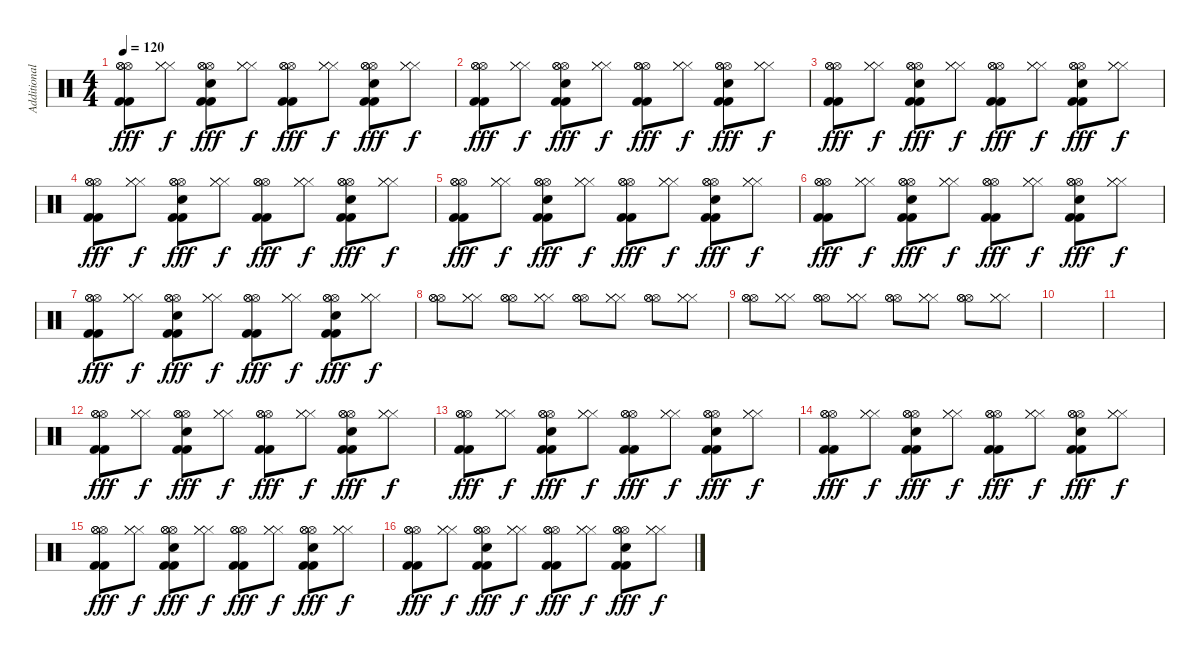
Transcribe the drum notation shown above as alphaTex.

\track ("Additional Rythm" "Additional") {instrument percussion}
\staff {score}
\articulation defaults
\ts (4 4)
\tempo 120
\clef neutral
\ks c
("Hi-Hat (open)" "Hi-Hat (open)" "Hi-Hat (open)" "Kick (hit) 2" "Kick (hit) 2").8{dy fff} ("Hi-Hat (closed)" "Hi-Hat (closed)" "Hi-Hat (closed)").8{dy f} ("Hi-Hat (open)" "Hi-Hat (open)" "Hi-Hat (open)" "Kick (hit) 2" "Kick (hit) 2" "Snare (hit) 2").8{dy fff} ("Hi-Hat (closed)" "Hi-Hat (closed)" "Hi-Hat (closed)").8{dy f} ("Hi-Hat (open)" "Hi-Hat (open)" "Hi-Hat (open)" "Kick (hit) 2" "Kick (hit) 2").8{dy fff} ("Hi-Hat (closed)" "Hi-Hat (closed)" "Hi-Hat (closed)").8{dy f} ("Hi-Hat (open)" "Hi-Hat (open)" "Hi-Hat (open)" "Kick (hit) 2" "Kick (hit) 2" "Snare (hit) 2").8{dy fff} ("Hi-Hat (closed)" "Hi-Hat (closed)" "Hi-Hat (closed)").8{dy f} |
("Hi-Hat (open)" "Hi-Hat (open)" "Hi-Hat (open)" "Kick (hit) 2" "Kick (hit) 2").8{dy fff} ("Hi-Hat (closed)" "Hi-Hat (closed)" "Hi-Hat (closed)").8{dy f} ("Hi-Hat (open)" "Hi-Hat (open)" "Hi-Hat (open)" "Kick (hit) 2" "Kick (hit) 2" "Snare (hit) 2").8{dy fff} ("Hi-Hat (closed)" "Hi-Hat (closed)" "Hi-Hat (closed)").8{dy f} ("Hi-Hat (open)" "Hi-Hat (open)" "Hi-Hat (open)" "Kick (hit) 2" "Kick (hit) 2").8{dy fff} ("Hi-Hat (closed)" "Hi-Hat (closed)" "Hi-Hat (closed)").8{dy f} ("Hi-Hat (open)" "Hi-Hat (open)" "Hi-Hat (open)" "Kick (hit) 2" "Kick (hit) 2" "Snare (hit) 2").8{dy fff} ("Hi-Hat (closed)" "Hi-Hat (closed)" "Hi-Hat (closed)").8{dy f} |
("Hi-Hat (open)" "Hi-Hat (open)" "Hi-Hat (open)" "Kick (hit) 2" "Kick (hit) 2").8{dy fff} ("Hi-Hat (closed)" "Hi-Hat (closed)" "Hi-Hat (closed)").8{dy f} ("Hi-Hat (open)" "Hi-Hat (open)" "Hi-Hat (open)" "Kick (hit) 2" "Kick (hit) 2" "Snare (hit) 2").8{dy fff} ("Hi-Hat (closed)" "Hi-Hat (closed)" "Hi-Hat (closed)").8{dy f} ("Hi-Hat (open)" "Hi-Hat (open)" "Hi-Hat (open)" "Kick (hit) 2" "Kick (hit) 2").8{dy fff} ("Hi-Hat (closed)" "Hi-Hat (closed)" "Hi-Hat (closed)").8{dy f} ("Hi-Hat (open)" "Hi-Hat (open)" "Hi-Hat (open)" "Kick (hit) 2" "Kick (hit) 2" "Snare (hit) 2").8{dy fff} ("Hi-Hat (closed)" "Hi-Hat (closed)" "Hi-Hat (closed)").8{dy f} |
("Hi-Hat (open)" "Hi-Hat (open)" "Hi-Hat (open)" "Kick (hit) 2" "Kick (hit) 2").8{dy fff} ("Hi-Hat (closed)" "Hi-Hat (closed)" "Hi-Hat (closed)").8{dy f} ("Hi-Hat (open)" "Hi-Hat (open)" "Hi-Hat (open)" "Kick (hit) 2" "Kick (hit) 2" "Snare (hit) 2").8{dy fff} ("Hi-Hat (closed)" "Hi-Hat (closed)" "Hi-Hat (closed)").8{dy f} ("Hi-Hat (open)" "Hi-Hat (open)" "Hi-Hat (open)" "Kick (hit) 2" "Kick (hit) 2").8{dy fff} ("Hi-Hat (closed)" "Hi-Hat (closed)" "Hi-Hat (closed)").8{dy f} ("Hi-Hat (open)" "Hi-Hat (open)" "Hi-Hat (open)" "Kick (hit) 2" "Kick (hit) 2" "Snare (hit) 2").8{dy fff} ("Hi-Hat (closed)" "Hi-Hat (closed)" "Hi-Hat (closed)").8{dy f} |
("Hi-Hat (open)" "Hi-Hat (open)" "Hi-Hat (open)" "Kick (hit) 2" "Kick (hit) 2").8{dy fff} ("Hi-Hat (closed)" "Hi-Hat (closed)" "Hi-Hat (closed)").8{dy f} ("Hi-Hat (open)" "Hi-Hat (open)" "Hi-Hat (open)" "Kick (hit) 2" "Kick (hit) 2" "Snare (hit) 2").8{dy fff} ("Hi-Hat (closed)" "Hi-Hat (closed)" "Hi-Hat (closed)").8{dy f} ("Hi-Hat (open)" "Hi-Hat (open)" "Hi-Hat (open)" "Kick (hit) 2" "Kick (hit) 2").8{dy fff} ("Hi-Hat (closed)" "Hi-Hat (closed)" "Hi-Hat (closed)").8{dy f} ("Hi-Hat (open)" "Hi-Hat (open)" "Hi-Hat (open)" "Kick (hit) 2" "Kick (hit) 2" "Snare (hit) 2").8{dy fff} ("Hi-Hat (closed)" "Hi-Hat (closed)" "Hi-Hat (closed)").8{dy f} |
("Hi-Hat (open)" "Hi-Hat (open)" "Hi-Hat (open)" "Kick (hit) 2" "Kick (hit) 2").8{dy fff} ("Hi-Hat (closed)" "Hi-Hat (closed)" "Hi-Hat (closed)").8{dy f} ("Hi-Hat (open)" "Hi-Hat (open)" "Hi-Hat (open)" "Kick (hit) 2" "Kick (hit) 2" "Snare (hit) 2").8{dy fff} ("Hi-Hat (closed)" "Hi-Hat (closed)" "Hi-Hat (closed)").8{dy f} ("Hi-Hat (open)" "Hi-Hat (open)" "Hi-Hat (open)" "Kick (hit) 2" "Kick (hit) 2").8{dy fff} ("Hi-Hat (closed)" "Hi-Hat (closed)" "Hi-Hat (closed)").8{dy f} ("Hi-Hat (open)" "Hi-Hat (open)" "Hi-Hat (open)" "Kick (hit) 2" "Kick (hit) 2" "Snare (hit) 2").8{dy fff} ("Hi-Hat (closed)" "Hi-Hat (closed)" "Hi-Hat (closed)").8{dy f} |
("Hi-Hat (open)" "Hi-Hat (open)" "Hi-Hat (open)" "Kick (hit) 2" "Kick (hit) 2").8{dy fff} ("Hi-Hat (closed)" "Hi-Hat (closed)" "Hi-Hat (closed)").8{dy f} ("Hi-Hat (open)" "Hi-Hat (open)" "Hi-Hat (open)" "Kick (hit) 2" "Kick (hit) 2" "Snare (hit) 2").8{dy fff} ("Hi-Hat (closed)" "Hi-Hat (closed)" "Hi-Hat (closed)").8{dy f} ("Hi-Hat (open)" "Hi-Hat (open)" "Hi-Hat (open)" "Kick (hit) 2" "Kick (hit) 2").8{dy fff} ("Hi-Hat (closed)" "Hi-Hat (closed)" "Hi-Hat (closed)").8{dy f} ("Hi-Hat (open)" "Hi-Hat (open)" "Hi-Hat (open)" "Kick (hit) 2" "Kick (hit) 2" "Snare (hit) 2").8{dy fff} ("Hi-Hat (closed)" "Hi-Hat (closed)" "Hi-Hat (closed)").8{dy f} |
("Hi-Hat (open)" "Hi-Hat (open)" "Hi-Hat (open)").8 ("Hi-Hat (closed)" "Hi-Hat (closed)" "Hi-Hat (closed)").8 ("Hi-Hat (open)" "Hi-Hat (open)" "Hi-Hat (open)").8 ("Hi-Hat (closed)" "Hi-Hat (closed)" "Hi-Hat (closed)").8 ("Hi-Hat (open)" "Hi-Hat (open)" "Hi-Hat (open)").8 ("Hi-Hat (closed)" "Hi-Hat (closed)" "Hi-Hat (closed)").8 ("Hi-Hat (open)" "Hi-Hat (open)" "Hi-Hat (open)").8 ("Hi-Hat (closed)" "Hi-Hat (closed)" "Hi-Hat (closed)").8 |
("Hi-Hat (open)" "Hi-Hat (open)" "Hi-Hat (open)").8 ("Hi-Hat (closed)" "Hi-Hat (closed)" "Hi-Hat (closed)").8 ("Hi-Hat (open)" "Hi-Hat (open)" "Hi-Hat (open)").8 ("Hi-Hat (closed)" "Hi-Hat (closed)" "Hi-Hat (closed)").8 ("Hi-Hat (open)" "Hi-Hat (open)" "Hi-Hat (open)").8 ("Hi-Hat (closed)" "Hi-Hat (closed)" "Hi-Hat (closed)").8 ("Hi-Hat (open)" "Hi-Hat (open)" "Hi-Hat (open)").8 ("Hi-Hat (closed)" "Hi-Hat (closed)" "Hi-Hat (closed)").8 |
|
|
("Hi-Hat (open)" "Hi-Hat (open)" "Hi-Hat (open)" "Kick (hit) 2" "Kick (hit) 2").8{dy fff} ("Hi-Hat (closed)" "Hi-Hat (closed)" "Hi-Hat (closed)").8{dy f} ("Hi-Hat (open)" "Hi-Hat (open)" "Hi-Hat (open)" "Kick (hit) 2" "Kick (hit) 2" "Snare (hit) 2").8{dy fff} ("Hi-Hat (closed)" "Hi-Hat (closed)" "Hi-Hat (closed)").8{dy f} ("Hi-Hat (open)" "Hi-Hat (open)" "Hi-Hat (open)" "Kick (hit) 2" "Kick (hit) 2").8{dy fff} ("Hi-Hat (closed)" "Hi-Hat (closed)" "Hi-Hat (closed)").8{dy f} ("Hi-Hat (open)" "Hi-Hat (open)" "Hi-Hat (open)" "Kick (hit) 2" "Kick (hit) 2" "Snare (hit) 2").8{dy fff} ("Hi-Hat (closed)" "Hi-Hat (closed)" "Hi-Hat (closed)").8{dy f} |
("Hi-Hat (open)" "Hi-Hat (open)" "Hi-Hat (open)" "Kick (hit) 2" "Kick (hit) 2").8{dy fff} ("Hi-Hat (closed)" "Hi-Hat (closed)" "Hi-Hat (closed)").8{dy f} ("Hi-Hat (open)" "Hi-Hat (open)" "Hi-Hat (open)" "Kick (hit) 2" "Kick (hit) 2" "Snare (hit) 2").8{dy fff} ("Hi-Hat (closed)" "Hi-Hat (closed)" "Hi-Hat (closed)").8{dy f} ("Hi-Hat (open)" "Hi-Hat (open)" "Hi-Hat (open)" "Kick (hit) 2" "Kick (hit) 2").8{dy fff} ("Hi-Hat (closed)" "Hi-Hat (closed)" "Hi-Hat (closed)").8{dy f} ("Hi-Hat (open)" "Hi-Hat (open)" "Hi-Hat (open)" "Kick (hit) 2" "Kick (hit) 2" "Snare (hit) 2").8{dy fff} ("Hi-Hat (closed)" "Hi-Hat (closed)" "Hi-Hat (closed)").8{dy f} |
("Hi-Hat (open)" "Hi-Hat (open)" "Hi-Hat (open)" "Kick (hit) 2" "Kick (hit) 2").8{dy fff} ("Hi-Hat (closed)" "Hi-Hat (closed)" "Hi-Hat (closed)").8{dy f} ("Hi-Hat (open)" "Hi-Hat (open)" "Hi-Hat (open)" "Kick (hit) 2" "Kick (hit) 2" "Snare (hit) 2").8{dy fff} ("Hi-Hat (closed)" "Hi-Hat (closed)" "Hi-Hat (closed)").8{dy f} ("Hi-Hat (open)" "Hi-Hat (open)" "Hi-Hat (open)" "Kick (hit) 2" "Kick (hit) 2").8{dy fff} ("Hi-Hat (closed)" "Hi-Hat (closed)" "Hi-Hat (closed)").8{dy f} ("Hi-Hat (open)" "Hi-Hat (open)" "Hi-Hat (open)" "Kick (hit) 2" "Kick (hit) 2" "Snare (hit) 2").8{dy fff} ("Hi-Hat (closed)" "Hi-Hat (closed)" "Hi-Hat (closed)").8{dy f} |
("Hi-Hat (open)" "Hi-Hat (open)" "Hi-Hat (open)" "Kick (hit) 2" "Kick (hit) 2").8{dy fff} ("Hi-Hat (closed)" "Hi-Hat (closed)" "Hi-Hat (closed)").8{dy f} ("Hi-Hat (open)" "Hi-Hat (open)" "Hi-Hat (open)" "Kick (hit) 2" "Kick (hit) 2" "Snare (hit) 2").8{dy fff} ("Hi-Hat (closed)" "Hi-Hat (closed)" "Hi-Hat (closed)").8{dy f} ("Hi-Hat (open)" "Hi-Hat (open)" "Hi-Hat (open)" "Kick (hit) 2" "Kick (hit) 2").8{dy fff} ("Hi-Hat (closed)" "Hi-Hat (closed)" "Hi-Hat (closed)").8{dy f} ("Hi-Hat (open)" "Hi-Hat (open)" "Hi-Hat (open)" "Kick (hit) 2" "Kick (hit) 2" "Snare (hit) 2").8{dy fff} ("Hi-Hat (closed)" "Hi-Hat (closed)" "Hi-Hat (closed)").8{dy f} |
("Hi-Hat (open)" "Hi-Hat (open)" "Hi-Hat (open)" "Kick (hit) 2" "Kick (hit) 2").8{dy fff} ("Hi-Hat (closed)" "Hi-Hat (closed)" "Hi-Hat (closed)").8{dy f} ("Hi-Hat (open)" "Hi-Hat (open)" "Hi-Hat (open)" "Kick (hit) 2" "Kick (hit) 2" "Snare (hit) 2").8{dy fff} ("Hi-Hat (closed)" "Hi-Hat (closed)" "Hi-Hat (closed)").8{dy f} ("Hi-Hat (open)" "Hi-Hat (open)" "Hi-Hat (open)" "Kick (hit) 2" "Kick (hit) 2").8{dy fff} ("Hi-Hat (closed)" "Hi-Hat (closed)" "Hi-Hat (closed)").8{dy f} ("Hi-Hat (open)" "Hi-Hat (open)" "Hi-Hat (open)" "Kick (hit) 2" "Kick (hit) 2" "Snare (hit) 2").8{dy fff} ("Hi-Hat (closed)" "Hi-Hat (closed)" "Hi-Hat (closed)").8{dy f}
